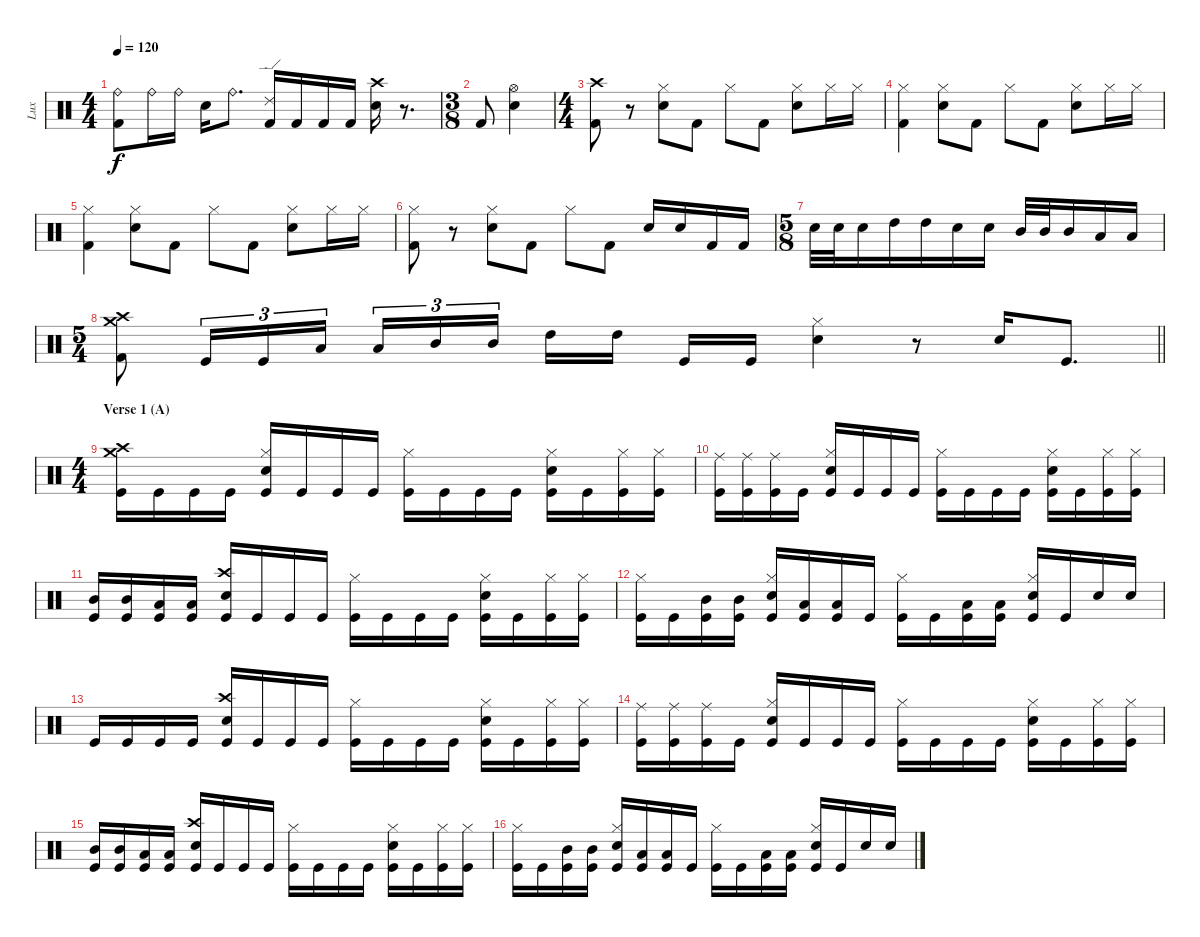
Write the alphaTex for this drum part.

\track ("Lux" "Lux") {instrument percussion bank 32}
\staff {score}
\articulation defaults
\ts (4 4)
\tempo 120
\clef neutral
\ks c
("Ride (bell)" "Kick (hit) 2").8{dy f} "Ride (bell)".16 "Ride (bell)".16 "Snare (hit) 2".16 "Ride (bell)".8{d} ("Ride (edge) 2" "Kick (hit) 2").16 "Kick (hit) 2".16 "Kick (hit) 2".16 "Kick (hit) 2".16 ("Crash high (hit)" "Snare (hit) 2").16 r.8{d} |
\ts (3 8)
"Kick (hit) 2".8 ("Hi-Hat (open)" "Snare (hit) 2").4 |
\ts (4 4)
("Crash high (hit)" "Kick (hit) 2").8 r.8 ("Hi-Hat (closed)" "Snare (hit) 2").8 "Kick (hit) 2".8 "Hi-Hat (closed)".8 "Kick (hit) 2".8 ("Hi-Hat (closed)" "Snare (hit) 2").8 "Hi-Hat (closed)".16 "Hi-Hat (closed)".16 |
("Hi-Hat (closed)" "Kick (hit) 2").4 ("Hi-Hat (closed)" "Snare (hit) 2").8 "Kick (hit) 2".8 "Hi-Hat (closed)".8 "Kick (hit) 2".8 ("Hi-Hat (closed)" "Snare (hit) 2").8 "Hi-Hat (closed)".16 "Hi-Hat (closed)".16 |
("Hi-Hat (closed)" "Kick (hit) 2").4 ("Hi-Hat (closed)" "Snare (hit) 2").8 "Kick (hit) 2".8 "Hi-Hat (closed)".8 "Kick (hit) 2".8 ("Hi-Hat (closed)" "Snare (hit) 2").8 "Hi-Hat (closed)".16 "Hi-Hat (closed)".16 |
("Hi-Hat (closed)" "Kick (hit) 2").8 r.8 ("Hi-Hat (closed)" "Snare (hit) 2").8 "Kick (hit) 2".8 "Hi-Hat (closed)".8 "Kick (hit) 2".8 "Snare (hit) 2".16 "Snare (hit) 2".16 "Kick (hit) 2".16 "Kick (hit) 2".16 |
\ts (5 8)
"Snare (hit) 2".32 "Snare (hit) 2".32 "Snare (hit) 2".16 "High Tom (hit)".16 "High Tom (hit)".16 "Snare (hit) 2".16 "Snare (hit) 2".16 "Mid Tom (hit)".32 "Mid Tom (hit)".32 "Mid Tom (hit)".16 "Low Tom (hit)".16 "Low Tom (hit)".16 |
\ts (5 4)
\barLineRight lightlight
("Crash high (hit)" "Crash medium (hit)" "Kick (hit) 2").8 "Kick (hit)".16{tu (3 2)} "Kick (hit)".16{tu (3 2)} "Low Tom (hit)".16{tu (3 2)} "Low Tom (hit)".16{tu (3 2)} "Mid Tom (hit)".16{tu (3 2)} "Mid Tom (hit)".16{tu (3 2) beam splitsecondary} "High Tom (hit)".16 "High Tom (hit)".16 "Kick (hit)".16 "Kick (hit)".16 ("Hi-Hat (closed)" "Snare (hit) 2").4 r.8 "Snare (hit) 2".16 "Kick (hit)".8{d} |
\ts (4 4)
\section ("" "Verse 1 (A)")
("Crash high (hit)" "Crash medium (hit)" "Kick (hit)").16 "Kick (hit)".16 "Kick (hit)".16 "Kick (hit)".16 ("Hi-Hat (closed)" "Snare (hit) 2" "Kick (hit)").16 "Kick (hit)".16 "Kick (hit)".16 "Kick (hit)".16 ("Hi-Hat (closed)" "Kick (hit)").16 "Kick (hit)".16 "Kick (hit)".16 "Kick (hit)".16 ("Hi-Hat (closed)" "Snare (hit) 2" "Kick (hit)").16 "Kick (hit)".16 ("Hi-Hat (closed)" "Kick (hit)").16 ("Hi-Hat (closed)" "Kick (hit)").16 |
("Ride (middle)" "Kick (hit)").16 ("Ride (middle)" "Kick (hit)").16 ("Ride (middle)" "Kick (hit)").16 "Kick (hit)".16 ("Hi-Hat (closed)" "Snare (hit) 2" "Kick (hit)").16 "Kick (hit)".16 "Kick (hit)".16 "Kick (hit)".16 ("Hi-Hat (closed)" "Kick (hit)").16 "Kick (hit)".16 "Kick (hit)".16 "Kick (hit)".16 ("Hi-Hat (closed)" "Snare (hit) 2" "Kick (hit)").16 "Kick (hit)".16 ("Hi-Hat (closed)" "Kick (hit)").16 ("Hi-Hat (closed)" "Kick (hit)").16 |
("Mid Tom (hit)" "Kick (hit)").16 ("Mid Tom (hit)" "Kick (hit)").16 ("Low Tom (hit)" "Kick (hit)").16 ("Low Tom (hit)" "Kick (hit)").16 ("Crash high (hit)" "Snare (hit) 2" "Kick (hit)").16 "Kick (hit)".16 "Kick (hit)".16 "Kick (hit)".16 ("Hi-Hat (closed)" "Kick (hit)").16 "Kick (hit)".16 "Kick (hit)".16 "Kick (hit)".16 ("Hi-Hat (closed)" "Snare (hit) 2" "Kick (hit)").16 "Kick (hit)".16 ("Hi-Hat (closed)" "Kick (hit)").16 ("Hi-Hat (closed)" "Kick (hit)").16 |
("Hi-Hat (closed)" "Kick (hit)").16 "Kick (hit)".16 ("Mid Tom (hit)" "Kick (hit)").16 ("Mid Tom (hit)" "Kick (hit)").16 ("Hi-Hat (closed)" "Snare (hit) 2" "Kick (hit)").16 ("Low Tom (hit)" "Kick (hit)").16 ("Low Tom (hit)" "Kick (hit)").16 "Kick (hit)".16 ("Hi-Hat (closed)" "Kick (hit)").16 "Kick (hit)".16 ("Low Tom (hit)" "Kick (hit)").16 ("Low Tom (hit)" "Kick (hit)").16 ("Hi-Hat (closed)" "Snare (hit) 2" "Kick (hit)").16 "Kick (hit)".16 "Snare (hit) 2".16 "Snare (hit) 2".16 |
"Kick (hit)".16 "Kick (hit)".16 "Kick (hit)".16 "Kick (hit)".16 ("Crash high (hit)" "Snare (hit) 2" "Kick (hit)").16 "Kick (hit)".16 "Kick (hit)".16 "Kick (hit)".16 ("Hi-Hat (closed)" "Kick (hit)").16 "Kick (hit)".16 "Kick (hit)".16 "Kick (hit)".16 ("Hi-Hat (closed)" "Snare (hit) 2" "Kick (hit)").16 "Kick (hit)".16 ("Hi-Hat (closed)" "Kick (hit)").16 ("Hi-Hat (closed)" "Kick (hit)").16 |
("Ride (middle)" "Kick (hit)").16 ("Ride (middle)" "Kick (hit)").16 ("Ride (middle)" "Kick (hit)").16 "Kick (hit)".16 ("Hi-Hat (closed)" "Snare (hit) 2" "Kick (hit)").16 "Kick (hit)".16 "Kick (hit)".16 "Kick (hit)".16 ("Hi-Hat (closed)" "Kick (hit)").16 "Kick (hit)".16 "Kick (hit)".16 "Kick (hit)".16 ("Hi-Hat (closed)" "Snare (hit) 2" "Kick (hit)").16 "Kick (hit)".16 ("Hi-Hat (closed)" "Kick (hit)").16 ("Hi-Hat (closed)" "Kick (hit)").16 |
("Mid Tom (hit)" "Kick (hit)").16 ("Mid Tom (hit)" "Kick (hit)").16 ("Low Tom (hit)" "Kick (hit)").16 ("Low Tom (hit)" "Kick (hit)").16 ("Crash high (hit)" "Snare (hit) 2" "Kick (hit)").16 "Kick (hit)".16 "Kick (hit)".16 "Kick (hit)".16 ("Hi-Hat (closed)" "Kick (hit)").16 "Kick (hit)".16 "Kick (hit)".16 "Kick (hit)".16 ("Hi-Hat (closed)" "Snare (hit) 2" "Kick (hit)").16 "Kick (hit)".16 ("Hi-Hat (closed)" "Kick (hit)").16 ("Hi-Hat (closed)" "Kick (hit)").16 |
("Hi-Hat (closed)" "Kick (hit)").16 "Kick (hit)".16 ("Mid Tom (hit)" "Kick (hit)").16 ("Mid Tom (hit)" "Kick (hit)").16 ("Hi-Hat (closed)" "Snare (hit) 2" "Kick (hit)").16 ("Low Tom (hit)" "Kick (hit)").16 ("Low Tom (hit)" "Kick (hit)").16 "Kick (hit)".16 ("Hi-Hat (closed)" "Kick (hit)").16 "Kick (hit)".16 ("Low Tom (hit)" "Kick (hit)").16 ("Low Tom (hit)" "Kick (hit)").16 ("Hi-Hat (closed)" "Snare (hit) 2" "Kick (hit)").16 "Kick (hit)".16 "Snare (hit) 2".16 "Snare (hit) 2".16
